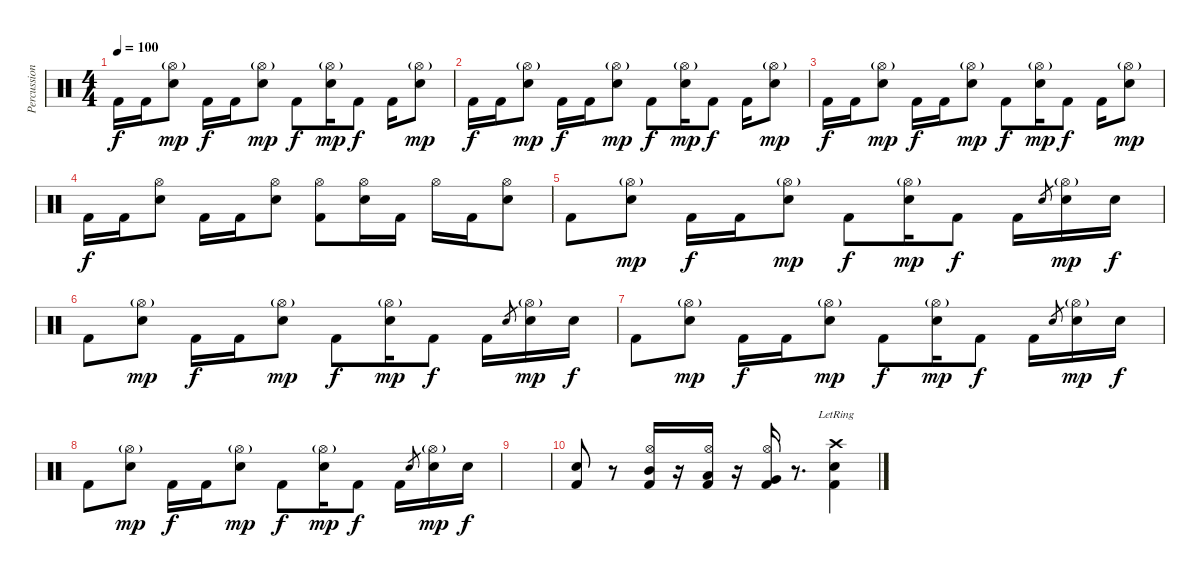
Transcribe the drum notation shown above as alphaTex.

\track ("Percussion" "Percussion") {instrument percussion}
\staff {score}
\articulation defaults
\ts (4 4)
\tempo 100
\clef neutral
\ks c "Kick (hit) 2".16{dy f} "Kick (hit) 2".16
("Hi-Hat (open)"{g} "Snare (hit) 2").8{dy mp} "Kick (hit) 2".16{dy f} "Kick (hit) 2".16 ("Hi-Hat (open)"{g} "Snare (hit) 2").8{dy mp} "Kick (hit) 2".8{dy f} ("Hi-Hat (open)"{g} "Snare (hit) 2").16{dy mp} "Kick (hit) 2".8{dy f} "Kick (hit) 2".16 ("Hi-Hat (open)"{g} "Snare (hit) 2").8{dy mp} |
"Kick (hit) 2".16{dy f} "Kick (hit) 2".16 ("Hi-Hat (open)"{g} "Snare (hit) 2").8{dy mp} "Kick (hit) 2".16{dy f} "Kick (hit) 2".16 ("Hi-Hat (open)"{g} "Snare (hit) 2").8{dy mp} "Kick (hit) 2".8{dy f} ("Hi-Hat (open)"{g} "Snare (hit) 2").16{dy mp} "Kick (hit) 2".8{dy f} "Kick (hit) 2".16 ("Hi-Hat (open)"{g} "Snare (hit) 2").8{dy mp} |
"Kick (hit) 2".16{dy f} "Kick (hit) 2".16 ("Hi-Hat (open)"{g} "Snare (hit) 2").8{dy mp} "Kick (hit) 2".16{dy f} "Kick (hit) 2".16 ("Hi-Hat (open)"{g} "Snare (hit) 2").8{dy mp} "Kick (hit) 2".8{dy f} ("Hi-Hat (open)"{g} "Snare (hit) 2").16{dy mp} "Kick (hit) 2".8{dy f} "Kick (hit) 2".16 ("Hi-Hat (open)"{g} "Snare (hit) 2").8{dy mp} |
"Kick (hit) 2".16{dy f} "Kick (hit) 2".16 ("Hi-Hat (open)" "Snare (hit) 2").8 "Kick (hit) 2".16 "Kick (hit) 2".16 ("Hi-Hat (open)" "Snare (hit) 2").8 ("Hi-Hat (open)" "Kick (hit) 2").8 ("Hi-Hat (open)" "Snare (hit) 2").16 "Kick (hit) 2".16 "Hi-Hat (open)".16 "Kick (hit) 2".16 ("Hi-Hat (open)" "Snare (hit) 2").8 |
"Kick (hit) 2".8 ("Hi-Hat (open)"{g} "Snare (hit) 2").8{dy mp} "Kick (hit) 2".16{dy f} "Kick (hit) 2".16 ("Hi-Hat (open)"{g} "Snare (hit) 2").8{dy mp} "Kick (hit) 2".8{dy f} ("Hi-Hat (open)"{g} "Snare (hit) 2").16{dy mp} "Kick (hit) 2".8{dy f} "Kick (hit) 2".16 "Snare (hit) 2".8{gr} ("Hi-Hat (open)"{g} "Snare (hit) 2").16{dy mp} "Snare (hit) 2".16{dy f} |
"Kick (hit) 2".8 ("Hi-Hat (open)"{g} "Snare (hit) 2").8{dy mp} "Kick (hit) 2".16{dy f} "Kick (hit) 2".16 ("Hi-Hat (open)"{g} "Snare (hit) 2").8{dy mp} "Kick (hit) 2".8{dy f} ("Hi-Hat (open)"{g} "Snare (hit) 2").16{dy mp} "Kick (hit) 2".8{dy f} "Kick (hit) 2".16 "Snare (hit) 2".8{gr} ("Hi-Hat (open)"{g} "Snare (hit) 2").16{dy mp} "Snare (hit) 2".16{dy f} |
"Kick (hit) 2".8 ("Hi-Hat (open)"{g} "Snare (hit) 2").8{dy mp} "Kick (hit) 2".16{dy f} "Kick (hit) 2".16 ("Hi-Hat (open)"{g} "Snare (hit) 2").8{dy mp} "Kick (hit) 2".8{dy f} ("Hi-Hat (open)"{g} "Snare (hit) 2").16{dy mp} "Kick (hit) 2".8{dy f} "Kick (hit) 2".16 "Snare (hit) 2".8{gr} ("Hi-Hat (open)"{g} "Snare (hit) 2").16{dy mp} "Snare (hit) 2".16{dy f} |
"Kick (hit) 2".8 ("Hi-Hat (open)"{g} "Snare (hit) 2").8{dy mp} "Kick (hit) 2".16{dy f} "Kick (hit) 2".16 ("Hi-Hat (open)"{g} "Snare (hit) 2").8{dy mp} "Kick (hit) 2".8{dy f} ("Hi-Hat (open)"{g} "Snare (hit) 2").16{dy mp} "Kick (hit) 2".8{dy f} "Kick (hit) 2".16 "Snare (hit) 2".8{gr} ("Hi-Hat (open)"{g} "Snare (hit) 2").16{dy mp} "Snare (hit) 2".16{dy f} |
|
("Snare (hit) 2" "Kick (hit) 2").8 r.8 ("Hi-Hat (open)" "Mid Tom (hit)" "Kick (hit) 2").16 r.16 ("Hi-Hat (open)" "Low Tom (hit)" "Kick (hit) 2").16 r.16 ("Hi-Hat (open)" "Very Low Tom (hit)" "Kick (hit) 2").16 r.8{d} ("Crash high (hit)"{lr} "Snare (hit) 2" "Kick (hit) 2").4
